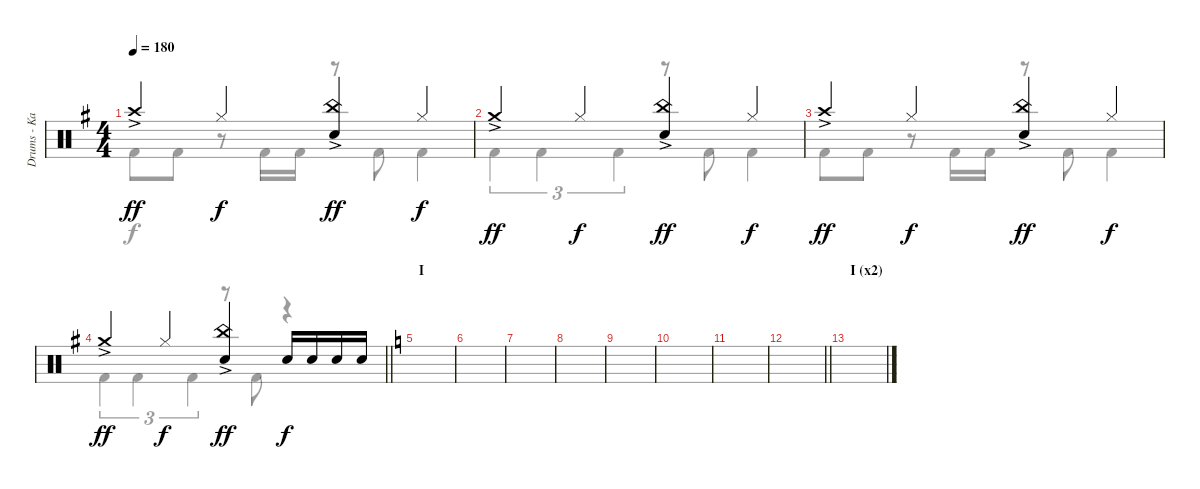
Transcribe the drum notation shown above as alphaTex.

\track ("Drums - Kai" "Drums - Ka") {instrument percussion}
\staff {score}
\articulation defaults
\voice
\ts (4 4)
\tempo 180
\clef neutral
\ks g "Crash high (hit)"{ac}.4{dy ff} "Hi-Hat (closed)".4{dy f}
("China (hit)"{ac} "Snare (hit) 2").4{dy ff} "Hi-Hat (closed)".4{dy f} |
"Crash medium (hit)"{ac}.4{dy ff} "Hi-Hat (closed)".4{dy f} ("China (hit)"{ac} "Snare (hit) 2").4{dy ff} "Hi-Hat (closed)".4{dy f} |
"Crash high (hit)"{ac}.4{dy ff} "Hi-Hat (closed)".4{dy f} ("China (hit)"{ac} "Snare (hit) 2").4{dy ff} "Hi-Hat (closed)".4{dy f} |
\barLineRight lightlight "Crash medium (hit)"{ac}.4{dy ff} "Hi-Hat (closed)".4{dy f}
("China (hit)"{ac} "Snare (hit) 2").4{dy ff} "Snare (hit) 2".16{dy f} "Snare (hit) 2".16 "Snare (hit) 2".16 "Snare (hit) 2".16 |
\section ("" "I")
\ks c
|
|
|
|
|
|
|
\barLineRight lightlight
|
\section ("" "I (x2)")
|
|
|
\voice
\clef neutral
\ottava regular
\simile none
\ks g "Kick (hit) 2".8{dy f} "Kick (hit) 2".8
r.8 "Kick (hit) 2".16 "Kick (hit) 2".16 r.8 "Kick (hit) 2".8 "Kick (hit) 2".4 |
"Kick (hit) 2".4{tu (3 2)} "Kick (hit) 2".4{tu (3 2)} "Kick (hit) 2".4{tu (3 2)} r.8 "Kick (hit) 2".8 "Kick (hit) 2".4 |
"Kick (hit) 2".8 "Kick (hit) 2".8 r.8 "Kick (hit) 2".16 "Kick (hit) 2".16 r.8 "Kick (hit) 2".8 "Kick (hit) 2".4 |
\barLineRight lightlight "Kick (hit) 2".4{tu (3 2)} "Kick (hit) 2".4{tu (3 2)} "Kick (hit) 2".4{tu (3 2)}
r.8 "Kick (hit) 2".8 r.4 |
\ks c
|
|
|
|
|
|
|
\barLineRight lightlight
|
|
|
|
